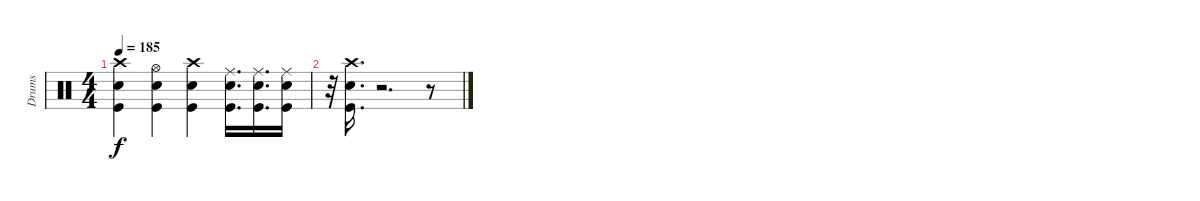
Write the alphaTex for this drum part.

\track ("Drums" "Drums") {instrument percussion}
\staff {score}
\articulation defaults
\ts (4 4)
\tempo 185
\clef neutral
\ks c
("Kick (hit)" "Snare (hit) 2" "Crash high (hit)").4{dy f} ("Kick (hit)" "Snare (hit) 2" "Hi-Hat (open)").4 ("Kick (hit)" "Snare (hit) 2" "Crash high (hit)").4 ("Kick (hit)" "Snare (hit) 2" "Ride (middle)").16{d} ("Kick (hit)" "Snare (hit) 2" "Ride (middle)").16{d} ("Kick (hit)" "Snare (hit) 2" "Ride (middle)").16 |
r.32 ("Kick (hit)" "Snare (hit) 2" "Crash high (hit)").16{d} r.2{d} r.8
